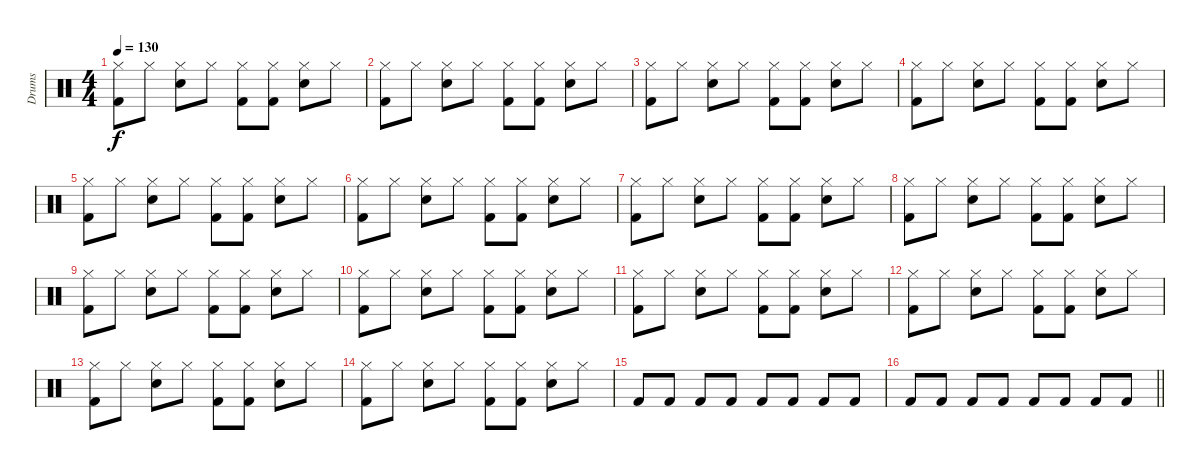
\track ("Drums" "Drums") {instrument percussion}
\staff {score}
\articulation defaults
\ts (4 4)
\tempo 130
\clef neutral
\ks c
("Hi-Hat (closed)" "Kick (hit) 2").8{dy f} "Hi-Hat (closed)".8 ("Hi-Hat (closed)" "Snare (hit) 2").8 "Hi-Hat (closed)".8 ("Hi-Hat (closed)" "Kick (hit) 2").8 ("Hi-Hat (closed)" "Kick (hit) 2").8 ("Hi-Hat (closed)" "Snare (hit) 2").8 "Hi-Hat (closed)".8 |
("Hi-Hat (closed)" "Kick (hit) 2").8 "Hi-Hat (closed)".8 ("Hi-Hat (closed)" "Snare (hit) 2").8 "Hi-Hat (closed)".8 ("Hi-Hat (closed)" "Kick (hit) 2").8 ("Hi-Hat (closed)" "Kick (hit) 2").8 ("Hi-Hat (closed)" "Snare (hit) 2").8 "Hi-Hat (closed)".8 |
("Hi-Hat (closed)" "Kick (hit) 2").8 "Hi-Hat (closed)".8 ("Hi-Hat (closed)" "Snare (hit) 2").8 "Hi-Hat (closed)".8 ("Hi-Hat (closed)" "Kick (hit) 2").8 ("Hi-Hat (closed)" "Kick (hit) 2").8 ("Hi-Hat (closed)" "Snare (hit) 2").8 "Hi-Hat (closed)".8 |
("Hi-Hat (closed)" "Kick (hit) 2").8 "Hi-Hat (closed)".8 ("Hi-Hat (closed)" "Snare (hit) 2").8 "Hi-Hat (closed)".8 ("Hi-Hat (closed)" "Kick (hit) 2").8 ("Hi-Hat (closed)" "Kick (hit) 2").8 ("Hi-Hat (closed)" "Snare (hit) 2").8 "Hi-Hat (closed)".8 |
("Hi-Hat (closed)" "Kick (hit) 2").8 "Hi-Hat (closed)".8 ("Hi-Hat (closed)" "Snare (hit) 2").8 "Hi-Hat (closed)".8 ("Hi-Hat (closed)" "Kick (hit) 2").8 ("Hi-Hat (closed)" "Kick (hit) 2").8 ("Hi-Hat (closed)" "Snare (hit) 2").8 "Hi-Hat (closed)".8 |
("Hi-Hat (closed)" "Kick (hit) 2").8 "Hi-Hat (closed)".8 ("Hi-Hat (closed)" "Snare (hit) 2").8 "Hi-Hat (closed)".8 ("Hi-Hat (closed)" "Kick (hit) 2").8 ("Hi-Hat (closed)" "Kick (hit) 2").8 ("Hi-Hat (closed)" "Snare (hit) 2").8 "Hi-Hat (closed)".8 |
("Hi-Hat (closed)" "Kick (hit) 2").8 "Hi-Hat (closed)".8 ("Hi-Hat (closed)" "Snare (hit) 2").8 "Hi-Hat (closed)".8 ("Hi-Hat (closed)" "Kick (hit) 2").8 ("Hi-Hat (closed)" "Kick (hit) 2").8 ("Hi-Hat (closed)" "Snare (hit) 2").8 "Hi-Hat (closed)".8 |
("Hi-Hat (closed)" "Kick (hit) 2").8 "Hi-Hat (closed)".8 ("Hi-Hat (closed)" "Snare (hit) 2").8 "Hi-Hat (closed)".8 ("Hi-Hat (closed)" "Kick (hit) 2").8 ("Hi-Hat (closed)" "Kick (hit) 2").8 ("Hi-Hat (closed)" "Snare (hit) 2").8 "Hi-Hat (closed)".8 |
("Hi-Hat (closed)" "Kick (hit) 2").8 "Hi-Hat (closed)".8 ("Hi-Hat (closed)" "Snare (hit) 2").8 "Hi-Hat (closed)".8 ("Hi-Hat (closed)" "Kick (hit) 2").8 ("Hi-Hat (closed)" "Kick (hit) 2").8 ("Hi-Hat (closed)" "Snare (hit) 2").8 "Hi-Hat (closed)".8 |
("Hi-Hat (closed)" "Kick (hit) 2").8 "Hi-Hat (closed)".8 ("Hi-Hat (closed)" "Snare (hit) 2").8 "Hi-Hat (closed)".8 ("Hi-Hat (closed)" "Kick (hit) 2").8 ("Hi-Hat (closed)" "Kick (hit) 2").8 ("Hi-Hat (closed)" "Snare (hit) 2").8 "Hi-Hat (closed)".8 |
("Hi-Hat (closed)" "Kick (hit) 2").8 "Hi-Hat (closed)".8 ("Hi-Hat (closed)" "Snare (hit) 2").8 "Hi-Hat (closed)".8 ("Hi-Hat (closed)" "Kick (hit) 2").8 ("Hi-Hat (closed)" "Kick (hit) 2").8 ("Hi-Hat (closed)" "Snare (hit) 2").8 "Hi-Hat (closed)".8 |
("Hi-Hat (closed)" "Kick (hit) 2").8 "Hi-Hat (closed)".8 ("Hi-Hat (closed)" "Snare (hit) 2").8 "Hi-Hat (closed)".8 ("Hi-Hat (closed)" "Kick (hit) 2").8 ("Hi-Hat (closed)" "Kick (hit) 2").8 ("Hi-Hat (closed)" "Snare (hit) 2").8 "Hi-Hat (closed)".8 |
("Hi-Hat (closed)" "Kick (hit) 2").8 "Hi-Hat (closed)".8 ("Hi-Hat (closed)" "Snare (hit) 2").8 "Hi-Hat (closed)".8 ("Hi-Hat (closed)" "Kick (hit) 2").8 ("Hi-Hat (closed)" "Kick (hit) 2").8 ("Hi-Hat (closed)" "Snare (hit) 2").8 "Hi-Hat (closed)".8 |
("Hi-Hat (closed)" "Kick (hit) 2").8 "Hi-Hat (closed)".8 ("Hi-Hat (closed)" "Snare (hit) 2").8 "Hi-Hat (closed)".8 ("Hi-Hat (closed)" "Kick (hit) 2").8 ("Hi-Hat (closed)" "Kick (hit) 2").8 ("Hi-Hat (closed)" "Snare (hit) 2").8 "Hi-Hat (closed)".8 |
"Kick (hit) 2".8 "Kick (hit) 2".8 "Kick (hit) 2".8 "Kick (hit) 2".8 "Kick (hit) 2".8 "Kick (hit) 2".8 "Kick (hit) 2".8 "Kick (hit) 2".8 |
\barLineRight lightlight "Kick (hit) 2".8 "Kick (hit) 2".8 "Kick (hit) 2".8 "Kick (hit) 2".8 "Kick (hit) 2".8 "Kick (hit) 2".8 "Kick (hit) 2".8 "Kick (hit) 2".8
